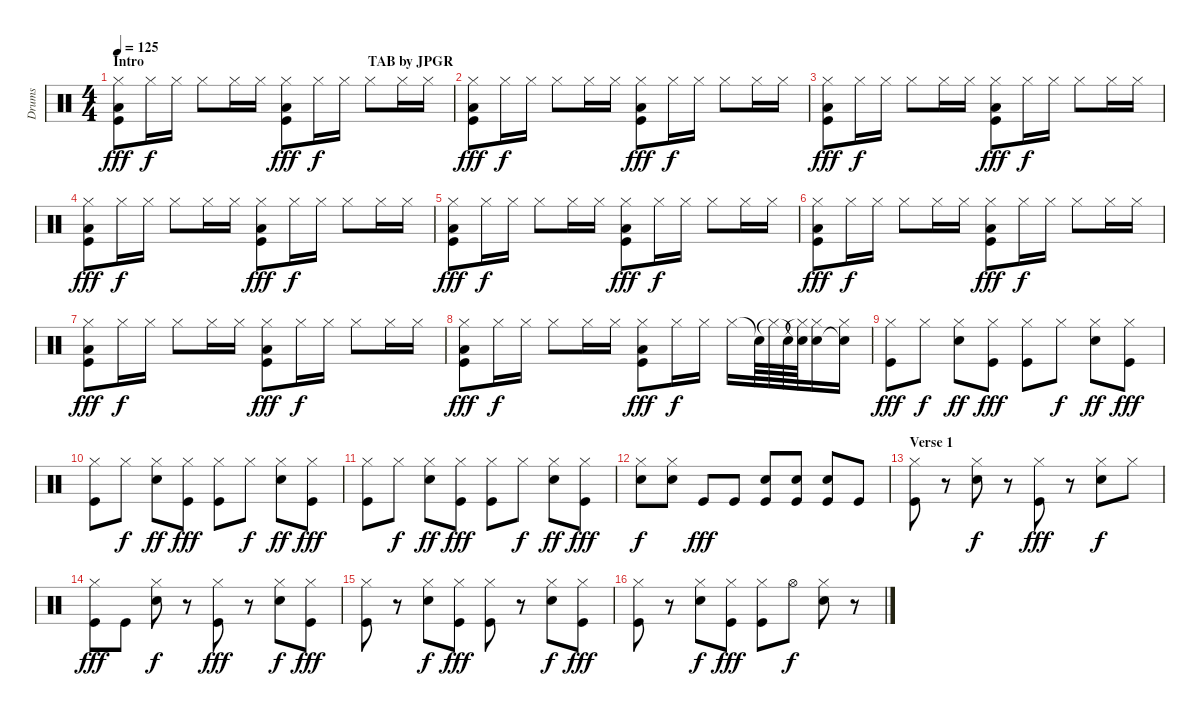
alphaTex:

\track ("Drums" "Drums") {instrument percussion}
\staff {score}
\articulation defaults
\ts (4 4)
\section ("" "Intro                                                                TAB by JPGR")
\tempo 125
\clef neutral
\ks c
("Hi-Hat (closed)" "Low Floor Tom (hit)" "Kick (hit)").8{dy fff} "Hi-Hat (closed)".16{dy f} "Hi-Hat (closed)".16 "Hi-Hat (closed)".8 "Hi-Hat (closed)".16 "Hi-Hat (closed)".16 ("Hi-Hat (closed)" "Low Floor Tom (hit)" "Kick (hit)").8{dy fff} "Hi-Hat (closed)".16{dy f} "Hi-Hat (closed)".16 "Hi-Hat (closed)".8 "Hi-Hat (closed)".16 "Hi-Hat (closed)".16 |
("Hi-Hat (closed)" "Low Floor Tom (hit)" "Kick (hit)").8{dy fff} "Hi-Hat (closed)".16{dy f} "Hi-Hat (closed)".16 "Hi-Hat (closed)".8 "Hi-Hat (closed)".16 "Hi-Hat (closed)".16 ("Hi-Hat (closed)" "Low Floor Tom (hit)" "Kick (hit)").8{dy fff} "Hi-Hat (closed)".16{dy f} "Hi-Hat (closed)".16 "Hi-Hat (closed)".8 "Hi-Hat (closed)".16 "Hi-Hat (closed)".16 |
("Hi-Hat (closed)" "Low Floor Tom (hit)" "Kick (hit)").8{dy fff} "Hi-Hat (closed)".16{dy f} "Hi-Hat (closed)".16 "Hi-Hat (closed)".8 "Hi-Hat (closed)".16 "Hi-Hat (closed)".16 ("Hi-Hat (closed)" "Low Floor Tom (hit)" "Kick (hit)").8{dy fff} "Hi-Hat (closed)".16{dy f} "Hi-Hat (closed)".16 "Hi-Hat (closed)".8 "Hi-Hat (closed)".16 "Hi-Hat (closed)".16 |
("Hi-Hat (closed)" "Low Floor Tom (hit)" "Kick (hit)").8{dy fff} "Hi-Hat (closed)".16{dy f} "Hi-Hat (closed)".16 "Hi-Hat (closed)".8 "Hi-Hat (closed)".16 "Hi-Hat (closed)".16 ("Hi-Hat (closed)" "Low Floor Tom (hit)" "Kick (hit)").8{dy fff} "Hi-Hat (closed)".16{dy f} "Hi-Hat (closed)".16 "Hi-Hat (closed)".8 "Hi-Hat (closed)".16 "Hi-Hat (closed)".16 |
("Hi-Hat (closed)" "Low Floor Tom (hit)" "Kick (hit)").8{dy fff} "Hi-Hat (closed)".16{dy f} "Hi-Hat (closed)".16 "Hi-Hat (closed)".8 "Hi-Hat (closed)".16 "Hi-Hat (closed)".16 ("Hi-Hat (closed)" "Low Floor Tom (hit)" "Kick (hit)").8{dy fff} "Hi-Hat (closed)".16{dy f} "Hi-Hat (closed)".16 "Hi-Hat (closed)".8 "Hi-Hat (closed)".16 "Hi-Hat (closed)".16 |
("Hi-Hat (closed)" "Low Floor Tom (hit)" "Kick (hit)").8{dy fff} "Hi-Hat (closed)".16{dy f} "Hi-Hat (closed)".16 "Hi-Hat (closed)".8 "Hi-Hat (closed)".16 "Hi-Hat (closed)".16 ("Hi-Hat (closed)" "Low Floor Tom (hit)" "Kick (hit)").8{dy fff} "Hi-Hat (closed)".16{dy f} "Hi-Hat (closed)".16 "Hi-Hat (closed)".8 "Hi-Hat (closed)".16 "Hi-Hat (closed)".16 |
("Hi-Hat (closed)" "Low Floor Tom (hit)" "Kick (hit)").8{dy fff} "Hi-Hat (closed)".16{dy f} "Hi-Hat (closed)".16 "Hi-Hat (closed)".8 "Hi-Hat (closed)".16 "Hi-Hat (closed)".16 ("Hi-Hat (closed)" "Low Floor Tom (hit)" "Kick (hit)").8{dy fff} "Hi-Hat (closed)".16{dy f} "Hi-Hat (closed)".16 "Hi-Hat (closed)".8 "Hi-Hat (closed)".16 "Hi-Hat (closed)".16 |
("Hi-Hat (closed)" "Low Floor Tom (hit)" "Kick (hit)").8{dy fff} "Hi-Hat (closed)".16{dy f} "Hi-Hat (closed)".16 "Hi-Hat (closed)".8 "Hi-Hat (closed)".16 "Hi-Hat (closed)".16 ("Hi-Hat (closed)" "Low Floor Tom (hit)" "Kick (hit)").8{dy fff} "Hi-Hat (closed)".16{dy f} "Hi-Hat (closed)".16 "Hi-Hat (closed)".16 "Snare (hit)"{t}.64 "Hi-Hat (closed)"{t}.64 "Snare (hit)"{t}.64 ("Hi-Hat (closed)"{t} "Snare (hit) 2").64 ("Hi-Hat (closed)" "Snare (hit) 2").16 ("Hi-Hat (closed)" "Snare (hit)"{t}).16 |
("Hi-Hat (closed)" "Kick (hit)").8{dy fff} "Hi-Hat (closed)".8{dy f} ("Hi-Hat (closed)" "Snare (hit) 2").8{dy ff} ("Hi-Hat (closed)" "Kick (hit)").8{dy fff} ("Hi-Hat (closed)" "Kick (hit)").8 "Hi-Hat (closed)".8{dy f} ("Hi-Hat (closed)" "Snare (hit) 2").8{dy ff} ("Hi-Hat (closed)" "Kick (hit)").8{dy fff} |
("Hi-Hat (closed)" "Kick (hit)").8 "Hi-Hat (closed)".8{dy f} ("Hi-Hat (closed)" "Snare (hit) 2").8{dy ff} ("Hi-Hat (closed)" "Kick (hit)").8{dy fff} ("Hi-Hat (closed)" "Kick (hit)").8 "Hi-Hat (closed)".8{dy f} ("Hi-Hat (closed)" "Snare (hit) 2").8{dy ff} ("Hi-Hat (closed)" "Kick (hit)").8{dy fff} |
("Hi-Hat (closed)" "Kick (hit)").8 "Hi-Hat (closed)".8{dy f} ("Hi-Hat (closed)" "Snare (hit) 2").8{dy ff} ("Hi-Hat (closed)" "Kick (hit)").8{dy fff} ("Hi-Hat (closed)" "Kick (hit)").8 "Hi-Hat (closed)".8{dy f} ("Hi-Hat (closed)" "Snare (hit) 2").8{dy ff} ("Hi-Hat (closed)" "Kick (hit)").8{dy fff} |
("Hi-Hat (closed)" "Electric Snare (hit)").8{dy f} ("Hi-Hat (closed)" "Electric Snare (hit)").8 "Kick (hit)".8{dy fff} "Kick (hit)".8 ("Snare (hit) 2" "Kick (hit)").8{balance 6} ("Snare (hit) 2" "Kick (hit)").8{balance 4} ("Snare (hit) 2" "Kick (hit)").8{balance 2} "Kick (hit)".8 |
\section ("" "Verse 1")
("Hi-Hat (closed)" "Kick (hit)").8 r.8 ("Hi-Hat (closed)" "Snare (hit) 2").8{dy f} r.8 ("Hi-Hat (closed)" "Kick (hit)").8{dy fff} r.8 ("Hi-Hat (closed)" "Snare (hit) 2").8{dy f} "Hi-Hat (closed)".8 |
("Hi-Hat (closed)" "Kick (hit)").8{dy fff} "Kick (hit)".8 ("Hi-Hat (closed)" "Snare (hit) 2").8{dy f} r.8 ("Hi-Hat (closed)" "Kick (hit)").8{dy fff} r.8 ("Hi-Hat (closed)" "Snare (hit) 2").8{dy f} ("Hi-Hat (closed)" "Kick (hit)").8{dy fff} |
("Hi-Hat (closed)" "Kick (hit)").8 r.8 ("Hi-Hat (closed)" "Snare (hit) 2").8{dy f} ("Hi-Hat (closed)" "Kick (hit)").8{dy fff} ("Hi-Hat (closed)" "Kick (hit)").8 r.8 ("Hi-Hat (closed)" "Snare (hit) 2").8{dy f} ("Hi-Hat (closed)" "Kick (hit)").8{dy fff} |
("Hi-Hat (closed)" "Kick (hit)").8 r.8 ("Hi-Hat (closed)" "Snare (hit) 2").8{dy f} ("Hi-Hat (closed)" "Kick (hit)").8{dy fff} ("Hi-Hat (closed)" "Kick (hit)").8 "Hi-Hat (open)".8{dy f} ("Hi-Hat (closed)" "Snare (hit) 2").8 r.8
